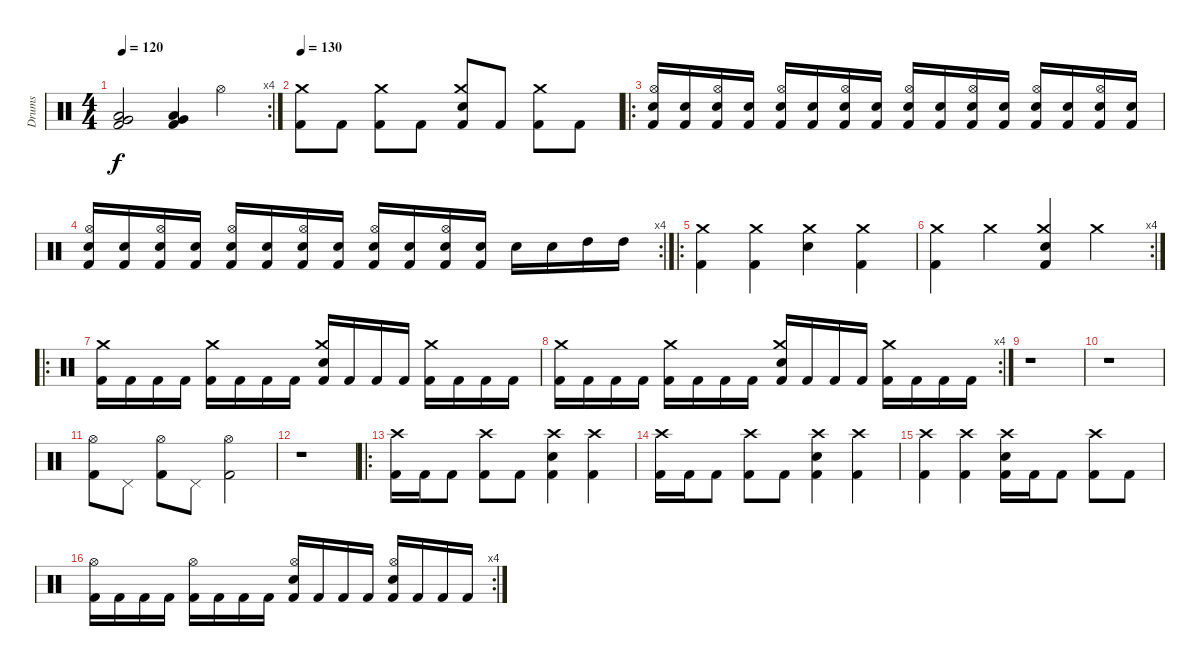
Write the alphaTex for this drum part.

\track ("Drums" "Drums") {instrument percussion}
\staff {score}
\articulation defaults
\rc 4
\ts (4 4)
\tempo 120
\clef neutral
\ks c
("Very Low Tom (hit)" "Low Floor Tom (hit)" "Kick (hit) 2").2{dy f} ("Very Low Tom (hit)" "Low Floor Tom (hit)" "Kick (hit) 2").4 "Hi-Hat (open)".4 |
\tempo 130
("Crash medium (hit)" "Kick (hit) 2").8 "Kick (hit) 2".8 ("Crash medium (hit)" "Kick (hit) 2").8 "Kick (hit) 2".8 ("Crash medium (hit)" "Electric Snare (hit)" "Kick (hit) 2").8 "Kick (hit) 2".8 ("Crash medium (hit)" "Kick (hit) 2").8 "Kick (hit) 2".8 |
\ro
("Hi-Hat (open)" "Electric Snare (hit)" "Kick (hit) 2").16 ("Electric Snare (hit)" "Kick (hit) 2").16 ("Hi-Hat (open)" "Electric Snare (hit)" "Kick (hit) 2").16 ("Electric Snare (hit)" "Kick (hit) 2").16 ("Hi-Hat (open)" "Electric Snare (hit)" "Kick (hit) 2").16 ("Electric Snare (hit)" "Kick (hit) 2").16 ("Hi-Hat (open)" "Electric Snare (hit)" "Kick (hit) 2").16 ("Electric Snare (hit)" "Kick (hit) 2").16 ("Hi-Hat (open)" "Electric Snare (hit)" "Kick (hit) 2").16 ("Electric Snare (hit)" "Kick (hit) 2").16 ("Hi-Hat (open)" "Electric Snare (hit)" "Kick (hit) 2").16 ("Electric Snare (hit)" "Kick (hit) 2").16 ("Hi-Hat (open)" "Electric Snare (hit)" "Kick (hit) 2").16 ("Electric Snare (hit)" "Kick (hit) 2").16 ("Hi-Hat (open)" "Electric Snare (hit)" "Kick (hit) 2").16 ("Electric Snare (hit)" "Kick (hit) 2").16 |
\rc 4
("Hi-Hat (open)" "Electric Snare (hit)" "Kick (hit) 2").16 ("Electric Snare (hit)" "Kick (hit) 2").16 ("Hi-Hat (open)" "Electric Snare (hit)" "Kick (hit) 2").16 ("Electric Snare (hit)" "Kick (hit) 2").16 ("Hi-Hat (open)" "Electric Snare (hit)" "Kick (hit) 2").16 ("Electric Snare (hit)" "Kick (hit) 2").16 ("Hi-Hat (open)" "Electric Snare (hit)" "Kick (hit) 2").16 ("Electric Snare (hit)" "Kick (hit) 2").16 ("Hi-Hat (open)" "Electric Snare (hit)" "Kick (hit) 2").16 ("Electric Snare (hit)" "Kick (hit) 2").16 ("Hi-Hat (open)" "Electric Snare (hit)" "Kick (hit) 2").16 ("Electric Snare (hit)" "Kick (hit) 2").16 "Electric Snare (hit)".16 "Electric Snare (hit)".16 "High Tom (hit)".16 "High Tom (hit)".16 |
\ro
("Crash medium (hit)" "Kick (hit) 2").4 ("Crash medium (hit)" "Kick (hit) 2").4 ("Crash medium (hit)" "Electric Snare (hit)").4 ("Crash medium (hit)" "Kick (hit) 2").4 |
\rc 4
("Crash medium (hit)" "Kick (hit) 2").4 "Crash medium (hit)".4 ("Crash medium (hit)" "Electric Snare (hit)" "Kick (hit) 2").4 "Crash medium (hit)".4 |
\ro
("Crash medium (hit)" "Kick (hit) 2").16 "Kick (hit) 2".16 "Kick (hit) 2".16 "Kick (hit) 2".16 ("Crash medium (hit)" "Kick (hit) 2").16 "Kick (hit) 2".16 "Kick (hit) 2".16 "Kick (hit) 2".16 ("Crash medium (hit)" "Electric Snare (hit)" "Kick (hit) 2").16 "Kick (hit) 2".16 "Kick (hit) 2".16 "Kick (hit) 2".16 ("Crash medium (hit)" "Kick (hit) 2").16 "Kick (hit) 2".16 "Kick (hit) 2".16 "Kick (hit) 2".16 |
\rc 4
("Crash medium (hit)" "Kick (hit) 2").16 "Kick (hit) 2".16 "Kick (hit) 2".16 "Kick (hit) 2".16 ("Crash medium (hit)" "Kick (hit) 2").16 "Kick (hit) 2".16 "Kick (hit) 2".16 "Kick (hit) 2".16 ("Crash medium (hit)" "Electric Snare (hit)" "Kick (hit) 2").16 "Kick (hit) 2".16 "Kick (hit) 2".16 "Kick (hit) 2".16 ("Crash medium (hit)" "Kick (hit) 2").16 "Kick (hit) 2".16 "Kick (hit) 2".16 "Kick (hit) 2".16 |
r.1 |
r.1 |
("Hi-Hat (open)" "Kick (hit) 2").8 "Pedal Hi-Hat (hit)".8 ("Hi-Hat (open)" "Kick (hit) 2").8 "Pedal Hi-Hat (hit)".8 ("Hi-Hat (open)" "Kick (hit) 2").2 |
r.1 |
\ro
("Crash high (hit)" "Kick (hit) 2").16 "Kick (hit) 2".16 "Kick (hit) 2".8 ("Crash high (hit)" "Kick (hit) 2").8 "Kick (hit) 2".8 ("Crash high (hit)" "Electric Snare (hit)" "Kick (hit) 2").4 ("Crash high (hit)" "Kick (hit) 2").4 |
("Crash high (hit)" "Kick (hit) 2").16 "Kick (hit) 2".16 "Kick (hit) 2".8 ("Crash high (hit)" "Kick (hit) 2").8 "Kick (hit) 2".8 ("Crash high (hit)" "Electric Snare (hit)" "Kick (hit) 2").4 ("Crash high (hit)" "Kick (hit) 2").4 |
("Crash high (hit)" "Kick (hit) 2").4 ("Crash high (hit)" "Kick (hit) 2").4 ("Crash high (hit)" "Electric Snare (hit)" "Kick (hit) 2").16 "Kick (hit) 2".16 "Kick (hit) 2".8 ("Crash high (hit)" "Kick (hit) 2").8 "Kick (hit) 2".8 |
\rc 4
("Hi-Hat (open)" "Kick (hit) 2").16 "Kick (hit) 2".16 "Kick (hit) 2".16 "Kick (hit) 2".16 ("Hi-Hat (open)" "Kick (hit) 2").16 "Kick (hit) 2".16 "Kick (hit) 2".16 "Kick (hit) 2".16 ("Hi-Hat (open)" "Electric Snare (hit)" "Kick (hit) 2").16 "Kick (hit) 2".16 "Kick (hit) 2".16 "Kick (hit) 2".16 ("Hi-Hat (open)" "Electric Snare (hit)" "Kick (hit) 2").16 "Kick (hit) 2".16 "Kick (hit) 2".16 "Kick (hit) 2".16
